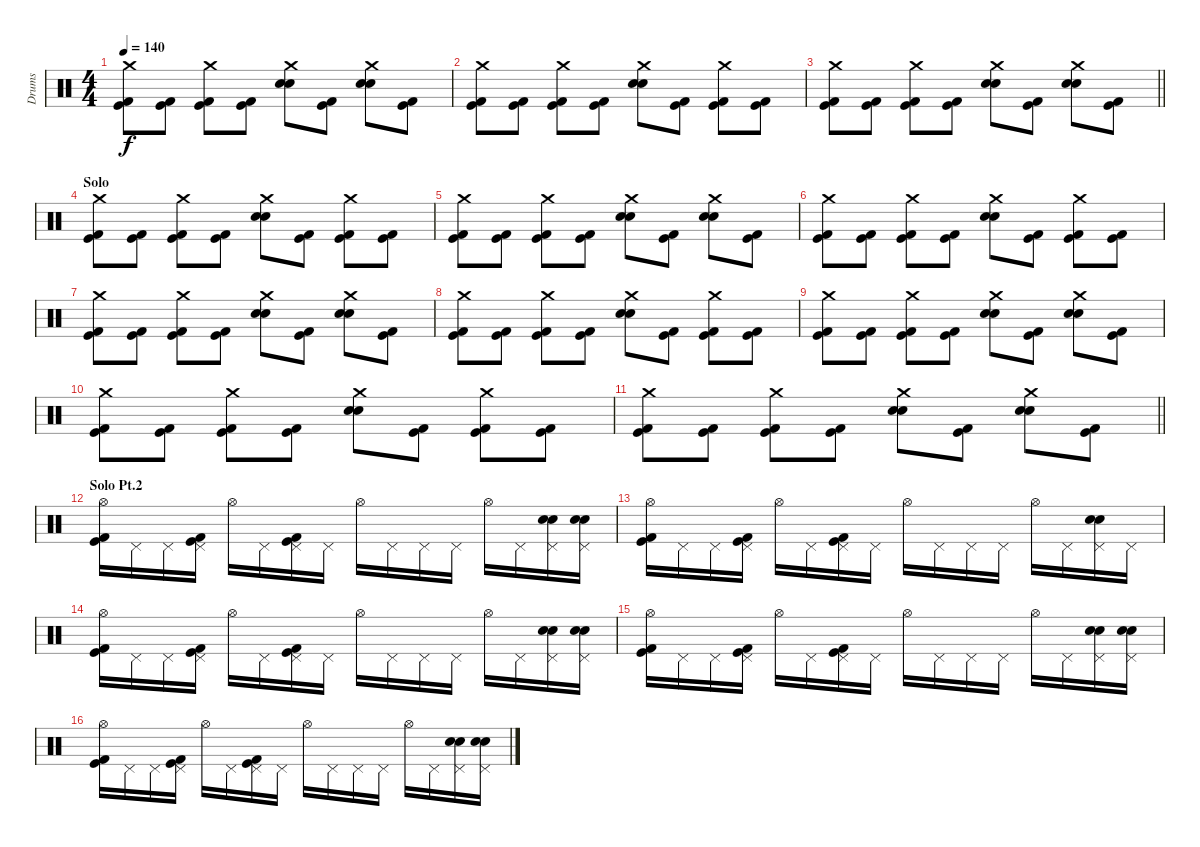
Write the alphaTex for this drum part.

\track ("Drums" "Drums") {instrument percussion}
\staff {score}
\articulation defaults
\ts (4 4)
\tempo 140
\clef neutral
\ks c
("Crash medium (hit)" "Kick (hit) 2" "Kick (hit)").8{dy f} ("Kick (hit) 2" "Kick (hit)").8 ("Crash medium (hit)" "Kick (hit) 2" "Kick (hit)").8 ("Kick (hit)" "Kick (hit) 2").8 ("Crash medium (hit)" "Electric Snare (hit)" "Electric Snare (hit)").8 ("Kick (hit) 2" "Kick (hit)").8 ("Crash medium (hit)" "Electric Snare (hit)" "Electric Snare (hit)").8 ("Kick (hit)" "Kick (hit) 2").8 |
("Crash medium (hit)" "Kick (hit) 2" "Kick (hit)").8 ("Kick (hit) 2" "Kick (hit)").8 ("Crash medium (hit)" "Kick (hit) 2" "Kick (hit)").8 ("Kick (hit)" "Kick (hit) 2").8 ("Crash medium (hit)" "Electric Snare (hit)" "Electric Snare (hit)").8 ("Kick (hit) 2" "Kick (hit)").8 ("Crash medium (hit)" "Kick (hit) 2" "Kick (hit)").8 ("Kick (hit)" "Kick (hit) 2").8 |
\barLineRight lightlight
("Crash medium (hit)" "Kick (hit) 2" "Kick (hit)").8 ("Kick (hit) 2" "Kick (hit)").8 ("Crash medium (hit)" "Kick (hit) 2" "Kick (hit)").8 ("Kick (hit)" "Kick (hit) 2").8 ("Crash medium (hit)" "Electric Snare (hit)" "Electric Snare (hit)").8 ("Kick (hit) 2" "Kick (hit)").8 ("Crash medium (hit)" "Electric Snare (hit)" "Electric Snare (hit)").8 ("Kick (hit)" "Kick (hit) 2").8 |
\section ("" "Solo")
("Crash medium (hit)" "Kick (hit) 2" "Kick (hit)").8 ("Kick (hit) 2" "Kick (hit)").8 ("Crash medium (hit)" "Kick (hit) 2" "Kick (hit)").8 ("Kick (hit)" "Kick (hit) 2").8 ("Crash medium (hit)" "Electric Snare (hit)" "Electric Snare (hit)").8 ("Kick (hit) 2" "Kick (hit)").8 ("Crash medium (hit)" "Kick (hit) 2" "Kick (hit)").8 ("Kick (hit)" "Kick (hit) 2").8 |
("Crash medium (hit)" "Kick (hit) 2" "Kick (hit)").8 ("Kick (hit) 2" "Kick (hit)").8 ("Crash medium (hit)" "Kick (hit) 2" "Kick (hit)").8 ("Kick (hit)" "Kick (hit) 2").8 ("Crash medium (hit)" "Electric Snare (hit)" "Electric Snare (hit)").8 ("Kick (hit) 2" "Kick (hit)").8 ("Crash medium (hit)" "Electric Snare (hit)" "Electric Snare (hit)").8 ("Kick (hit)" "Kick (hit) 2").8 |
("Crash medium (hit)" "Kick (hit) 2" "Kick (hit)").8 ("Kick (hit) 2" "Kick (hit)").8 ("Crash medium (hit)" "Kick (hit) 2" "Kick (hit)").8 ("Kick (hit)" "Kick (hit) 2").8 ("Crash medium (hit)" "Electric Snare (hit)" "Electric Snare (hit)").8 ("Kick (hit) 2" "Kick (hit)").8 ("Crash medium (hit)" "Kick (hit) 2" "Kick (hit)").8 ("Kick (hit)" "Kick (hit) 2").8 |
("Crash medium (hit)" "Kick (hit) 2" "Kick (hit)").8 ("Kick (hit) 2" "Kick (hit)").8 ("Crash medium (hit)" "Kick (hit) 2" "Kick (hit)").8 ("Kick (hit)" "Kick (hit) 2").8 ("Crash medium (hit)" "Electric Snare (hit)" "Electric Snare (hit)").8 ("Kick (hit) 2" "Kick (hit)").8 ("Crash medium (hit)" "Electric Snare (hit)" "Electric Snare (hit)").8 ("Kick (hit)" "Kick (hit) 2").8 |
("Crash medium (hit)" "Kick (hit) 2" "Kick (hit)").8 ("Kick (hit) 2" "Kick (hit)").8 ("Crash medium (hit)" "Kick (hit) 2" "Kick (hit)").8 ("Kick (hit)" "Kick (hit) 2").8 ("Crash medium (hit)" "Electric Snare (hit)" "Electric Snare (hit)").8 ("Kick (hit) 2" "Kick (hit)").8 ("Crash medium (hit)" "Kick (hit) 2" "Kick (hit)").8 ("Kick (hit)" "Kick (hit) 2").8 |
("Crash medium (hit)" "Kick (hit) 2" "Kick (hit)").8 ("Kick (hit) 2" "Kick (hit)").8 ("Crash medium (hit)" "Kick (hit) 2" "Kick (hit)").8 ("Kick (hit)" "Kick (hit) 2").8 ("Crash medium (hit)" "Electric Snare (hit)" "Electric Snare (hit)").8 ("Kick (hit) 2" "Kick (hit)").8 ("Crash medium (hit)" "Electric Snare (hit)" "Electric Snare (hit)").8 ("Kick (hit)" "Kick (hit) 2").8 |
("Crash medium (hit)" "Kick (hit) 2" "Kick (hit)").8 ("Kick (hit) 2" "Kick (hit)").8 ("Crash medium (hit)" "Kick (hit) 2" "Kick (hit)").8 ("Kick (hit)" "Kick (hit) 2").8 ("Crash medium (hit)" "Electric Snare (hit)" "Electric Snare (hit)").8 ("Kick (hit) 2" "Kick (hit)").8 ("Crash medium (hit)" "Kick (hit) 2" "Kick (hit)").8 ("Kick (hit)" "Kick (hit) 2").8 |
\barLineRight lightlight
("Crash medium (hit)" "Kick (hit) 2" "Kick (hit)").8 ("Kick (hit) 2" "Kick (hit)").8 ("Crash medium (hit)" "Kick (hit) 2" "Kick (hit)").8 ("Kick (hit)" "Kick (hit) 2").8 ("Crash medium (hit)" "Electric Snare (hit)" "Electric Snare (hit)").8 ("Kick (hit) 2" "Kick (hit)").8 ("Crash medium (hit)" "Electric Snare (hit)" "Electric Snare (hit)").8 ("Kick (hit)" "Kick (hit) 2").8 |
\section ("" "Solo Pt.2")
("Hi-Hat (open)" "Kick (hit) 2" "Kick (hit)").16 "Pedal Hi-Hat (hit)".16 "Pedal Hi-Hat (hit)".16 ("Pedal Hi-Hat (hit)" "Kick (hit) 2" "Kick (hit)").16 "Hi-Hat (open)".16 "Pedal Hi-Hat (hit)".16 ("Pedal Hi-Hat (hit)" "Kick (hit) 2" "Kick (hit)").16 "Pedal Hi-Hat (hit)".16 "Hi-Hat (open)".16 "Pedal Hi-Hat (hit)".16 "Pedal Hi-Hat (hit)".16 "Pedal Hi-Hat (hit)".16 "Hi-Hat (open)".16 "Pedal Hi-Hat (hit)".16 ("Pedal Hi-Hat (hit)" "Electric Snare (hit)" "Electric Snare (hit)").16 ("Pedal Hi-Hat (hit)" "Electric Snare (hit)" "Electric Snare (hit)").16 |
("Hi-Hat (open)" "Kick (hit) 2" "Kick (hit)").16 "Pedal Hi-Hat (hit)".16 "Pedal Hi-Hat (hit)".16 ("Pedal Hi-Hat (hit)" "Kick (hit) 2" "Kick (hit)").16 "Hi-Hat (open)".16 "Pedal Hi-Hat (hit)".16 ("Pedal Hi-Hat (hit)" "Kick (hit) 2" "Kick (hit)").16 "Pedal Hi-Hat (hit)".16 "Hi-Hat (open)".16 "Pedal Hi-Hat (hit)".16 "Pedal Hi-Hat (hit)".16 "Pedal Hi-Hat (hit)".16 "Hi-Hat (open)".16 "Pedal Hi-Hat (hit)".16 ("Pedal Hi-Hat (hit)" "Electric Snare (hit)" "Electric Snare (hit)").16 "Pedal Hi-Hat (hit)".16 |
("Hi-Hat (open)" "Kick (hit) 2" "Kick (hit)").16 "Pedal Hi-Hat (hit)".16 "Pedal Hi-Hat (hit)".16 ("Pedal Hi-Hat (hit)" "Kick (hit) 2" "Kick (hit)").16 "Hi-Hat (open)".16 "Pedal Hi-Hat (hit)".16 ("Pedal Hi-Hat (hit)" "Kick (hit) 2" "Kick (hit)").16 "Pedal Hi-Hat (hit)".16 "Hi-Hat (open)".16 "Pedal Hi-Hat (hit)".16 "Pedal Hi-Hat (hit)".16 "Pedal Hi-Hat (hit)".16 "Hi-Hat (open)".16 "Pedal Hi-Hat (hit)".16 ("Pedal Hi-Hat (hit)" "Electric Snare (hit)" "Electric Snare (hit)").16 ("Pedal Hi-Hat (hit)" "Electric Snare (hit)" "Electric Snare (hit)").16 |
("Hi-Hat (open)" "Kick (hit) 2" "Kick (hit)").16 "Pedal Hi-Hat (hit)".16 "Pedal Hi-Hat (hit)".16 ("Pedal Hi-Hat (hit)" "Kick (hit) 2" "Kick (hit)").16 "Hi-Hat (open)".16 "Pedal Hi-Hat (hit)".16 ("Pedal Hi-Hat (hit)" "Kick (hit) 2" "Kick (hit)").16 "Pedal Hi-Hat (hit)".16 "Hi-Hat (open)".16 "Pedal Hi-Hat (hit)".16 "Pedal Hi-Hat (hit)".16 "Pedal Hi-Hat (hit)".16 "Hi-Hat (open)".16 "Pedal Hi-Hat (hit)".16 ("Pedal Hi-Hat (hit)" "Electric Snare (hit)" "Electric Snare (hit)").16 ("Pedal Hi-Hat (hit)" "Electric Snare (hit)" "Electric Snare (hit)").16 |
("Hi-Hat (open)" "Kick (hit) 2" "Kick (hit)").16 "Pedal Hi-Hat (hit)".16 "Pedal Hi-Hat (hit)".16 ("Pedal Hi-Hat (hit)" "Kick (hit) 2" "Kick (hit)").16 "Hi-Hat (open)".16 "Pedal Hi-Hat (hit)".16 ("Pedal Hi-Hat (hit)" "Kick (hit) 2" "Kick (hit)").16 "Pedal Hi-Hat (hit)".16 "Hi-Hat (open)".16 "Pedal Hi-Hat (hit)".16 "Pedal Hi-Hat (hit)".16 "Pedal Hi-Hat (hit)".16 "Hi-Hat (open)".16 "Pedal Hi-Hat (hit)".16 ("Pedal Hi-Hat (hit)" "Electric Snare (hit)" "Electric Snare (hit)").16 ("Pedal Hi-Hat (hit)" "Electric Snare (hit)" "Electric Snare (hit)").16
